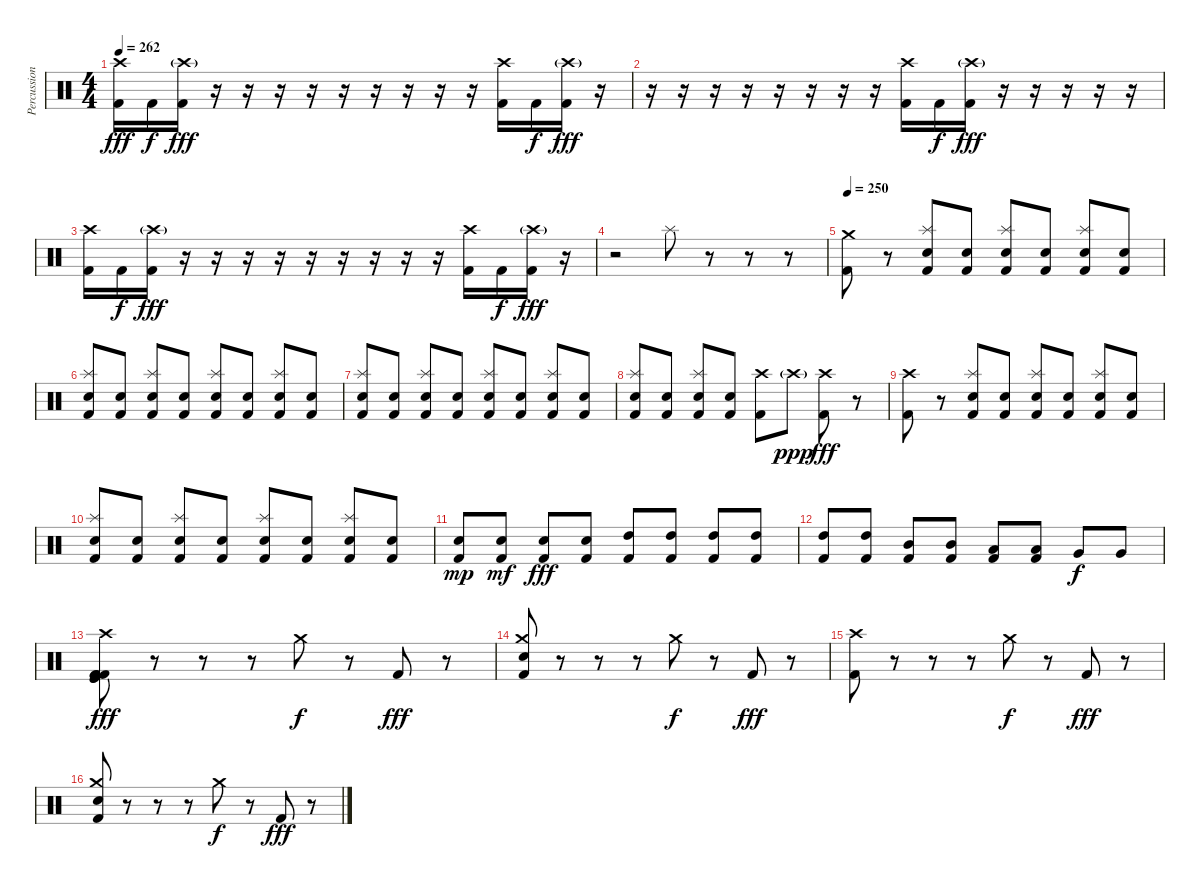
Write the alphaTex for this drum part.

\track ("Percussion" "Percussion") {instrument percussion}
\staff {score}
\articulation defaults
\ts (4 4)
\tempo 262
\clef neutral
\ks c
("Crash high (hit)" "Kick (hit) 2").16{dy fff} "Kick (hit) 2".16{dy f} ("Crash high (hit)"{g} "Kick (hit) 2").16{dy fff} r.16 r.16 r.16 r.16 r.16 r.16 r.16 r.16 r.16 ("Crash high (hit)" "Kick (hit) 2").16 "Kick (hit) 2".16{dy f} ("Crash high (hit)"{g} "Kick (hit) 2").16{dy fff} r.16 |
r.16 r.16 r.16 r.16 r.16 r.16 r.16 r.16 ("Crash high (hit)" "Kick (hit) 2").16 "Kick (hit) 2".16{dy f} ("Crash high (hit)"{g} "Kick (hit) 2").16{dy fff} r.16 r.16 r.16 r.16 r.16 |
("Crash high (hit)" "Kick (hit) 2").16 "Kick (hit) 2".16{dy f} ("Crash high (hit)"{g} "Kick (hit) 2").16{dy fff} r.16 r.16 r.16 r.16 r.16 r.16 r.16 r.16 r.16 ("Crash high (hit)" "Kick (hit) 2").16 "Kick (hit) 2".16{dy f} ("Crash high (hit)"{g} "Kick (hit) 2").16{dy fff} r.16 |
r.2 "Splash (hit)".8 r.8 r.8 r.8 |
\tempo 250
("Crash medium (hit)" "Kick (hit) 2").8 r.8 ("Splash (hit)" "Electric Snare (hit)" "Kick (hit) 2").8 ("Electric Snare (hit)" "Kick (hit) 2").8 ("Splash (hit)" "Electric Snare (hit)" "Kick (hit) 2").8 ("Electric Snare (hit)" "Kick (hit) 2").8 ("Splash (hit)" "Electric Snare (hit)" "Kick (hit) 2").8 ("Electric Snare (hit)" "Kick (hit) 2").8 |
("Splash (hit)" "Electric Snare (hit)" "Kick (hit) 2").8 ("Electric Snare (hit)" "Kick (hit) 2").8 ("Splash (hit)" "Electric Snare (hit)" "Kick (hit) 2").8 ("Electric Snare (hit)" "Kick (hit) 2").8 ("Splash (hit)" "Electric Snare (hit)" "Kick (hit) 2").8 ("Electric Snare (hit)" "Kick (hit) 2").8 ("Splash (hit)" "Electric Snare (hit)" "Kick (hit) 2").8 ("Electric Snare (hit)" "Kick (hit) 2").8 |
("Splash (hit)" "Electric Snare (hit)" "Kick (hit) 2").8 ("Electric Snare (hit)" "Kick (hit) 2").8 ("Splash (hit)" "Electric Snare (hit)" "Kick (hit) 2").8 ("Electric Snare (hit)" "Kick (hit) 2").8 ("Splash (hit)" "Electric Snare (hit)" "Kick (hit) 2").8 ("Electric Snare (hit)" "Kick (hit) 2").8 ("Splash (hit)" "Electric Snare (hit)" "Kick (hit) 2").8 ("Electric Snare (hit)" "Kick (hit) 2").8 |
("Splash (hit)" "Electric Snare (hit)" "Kick (hit) 2").8 ("Electric Snare (hit)" "Kick (hit) 2").8 ("Splash (hit)" "Electric Snare (hit)" "Kick (hit) 2").8 ("Electric Snare (hit)" "Kick (hit) 2").8 ("Crash high (hit)" "Kick (hit) 2").8 "Crash high (hit)"{g}.8{dy ppp} ("Crash high (hit)" "Kick (hit) 2").8{dy fff} r.8 |
("Crash high (hit)" "Kick (hit) 2").8 r.8 ("Splash (hit)" "Electric Snare (hit)" "Kick (hit) 2").8 ("Electric Snare (hit)" "Kick (hit) 2").8 ("Splash (hit)" "Electric Snare (hit)" "Kick (hit) 2").8 ("Electric Snare (hit)" "Kick (hit) 2").8 ("Splash (hit)" "Electric Snare (hit)" "Kick (hit) 2").8 ("Electric Snare (hit)" "Kick (hit) 2").8 |
("Splash (hit)" "Electric Snare (hit)" "Kick (hit) 2").8 ("Electric Snare (hit)" "Kick (hit) 2").8 ("Splash (hit)" "Electric Snare (hit)" "Kick (hit) 2").8 ("Electric Snare (hit)" "Kick (hit) 2").8 ("Splash (hit)" "Electric Snare (hit)" "Kick (hit) 2").8 ("Electric Snare (hit)" "Kick (hit) 2").8 ("Splash (hit)" "Electric Snare (hit)" "Kick (hit) 2").8 ("Electric Snare (hit)" "Kick (hit) 2").8 |
("Electric Snare (hit)" "Kick (hit) 2").8{dy mp} ("Electric Snare (hit)" "Kick (hit) 2").8{dy mf} ("Electric Snare (hit)" "Kick (hit) 2").8{dy fff} ("Electric Snare (hit)" "Kick (hit) 2").8 ("High Tom (hit)" "Kick (hit) 2").8 ("High Tom (hit)" "Kick (hit) 2").8 ("High Tom (hit)" "Kick (hit) 2").8 ("High Tom (hit)" "Kick (hit) 2").8 |
("High Tom (hit)" "Kick (hit) 2").8 ("High Tom (hit)" "Kick (hit) 2").8 ("Mid Tom (hit)" "Kick (hit) 2").8 ("Mid Tom (hit)" "Kick (hit) 2").8 ("Low Tom (hit)" "Kick (hit) 2").8 ("Low Tom (hit)" "Kick (hit) 2").8 "Very Low Tom (hit)".8{dy f} "Very Low Tom (hit)".8 |
("Crash high (hit)" "Kick (hit)" "Kick (hit)" "Kick (hit) 2" "Kick (hit) 2" "Kick (hit) 2").8{dy fff} r.8 r.8 r.8 "Crash medium (hit)".8{dy f} r.8 "Kick (hit) 2".8{dy fff} r.8 |
("Crash medium (hit)" "Electric Snare (hit)" "Kick (hit) 2").8 r.8 r.8 r.8 "Crash medium (hit)".8{dy f} r.8 "Kick (hit) 2".8{dy fff} r.8 |
("Crash high (hit)" "Kick (hit) 2").8 r.8 r.8 r.8 "Crash medium (hit)".8{dy f} r.8 "Kick (hit) 2".8{dy fff} r.8 |
("Crash medium (hit)" "Electric Snare (hit)" "Kick (hit) 2").8 r.8 r.8 r.8 "Crash medium (hit)".8{dy f} r.8 "Kick (hit) 2".8{dy fff} r.8
